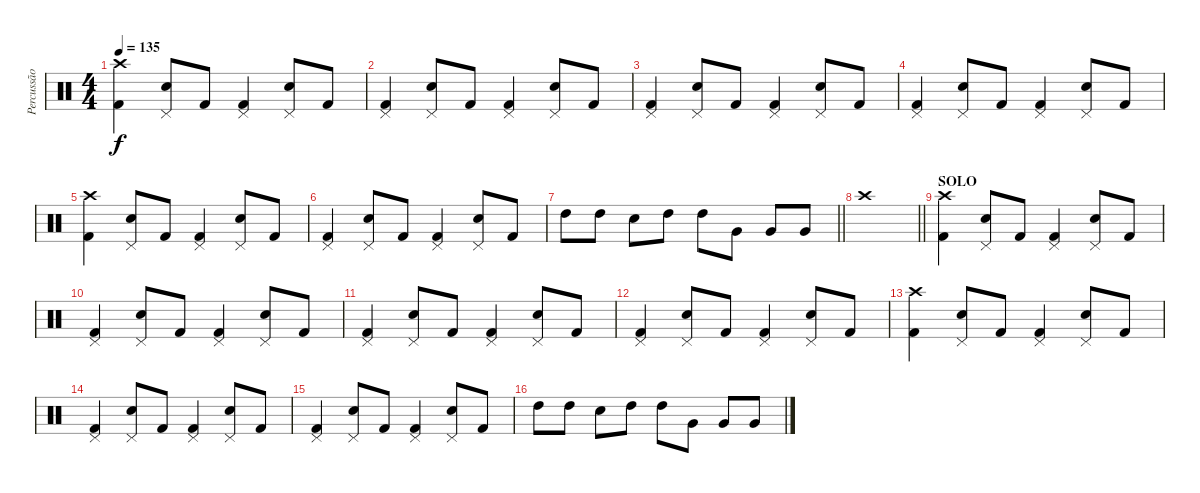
\track ("Percussão" "Percussão") {instrument percussion}
\staff {score}
\articulation defaults
\ts (4 4)
\tempo 135
\clef neutral
\ks c
("Crash high (hit)" "Kick (hit) 2").4{dy f} ("Pedal Hi-Hat (hit)" "Snare (hit) 2").8 "Kick (hit) 2".8 ("Pedal Hi-Hat (hit)" "Kick (hit) 2").4 ("Pedal Hi-Hat (hit)" "Snare (hit) 2").8 "Kick (hit) 2".8 |
("Pedal Hi-Hat (hit)" "Kick (hit) 2").4 ("Pedal Hi-Hat (hit)" "Snare (hit) 2").8 "Kick (hit) 2".8 ("Pedal Hi-Hat (hit)" "Kick (hit) 2").4 ("Pedal Hi-Hat (hit)" "Snare (hit) 2").8 "Kick (hit) 2".8 |
("Pedal Hi-Hat (hit)" "Kick (hit) 2").4 ("Pedal Hi-Hat (hit)" "Snare (hit) 2").8 "Kick (hit) 2".8 ("Pedal Hi-Hat (hit)" "Kick (hit) 2").4 ("Pedal Hi-Hat (hit)" "Snare (hit) 2").8 "Kick (hit) 2".8 |
("Pedal Hi-Hat (hit)" "Kick (hit) 2").4 ("Pedal Hi-Hat (hit)" "Snare (hit) 2").8 "Kick (hit) 2".8 ("Pedal Hi-Hat (hit)" "Kick (hit) 2").4 ("Pedal Hi-Hat (hit)" "Snare (hit) 2").8 "Kick (hit) 2".8 |
("Crash high (hit)" "Kick (hit) 2").4 ("Pedal Hi-Hat (hit)" "Snare (hit) 2").8 "Kick (hit) 2".8 ("Pedal Hi-Hat (hit)" "Kick (hit) 2").4 ("Pedal Hi-Hat (hit)" "Snare (hit) 2").8 "Kick (hit) 2".8 |
("Pedal Hi-Hat (hit)" "Kick (hit) 2").4 ("Pedal Hi-Hat (hit)" "Snare (hit) 2").8 "Kick (hit) 2".8 ("Pedal Hi-Hat (hit)" "Kick (hit) 2").4 ("Pedal Hi-Hat (hit)" "Snare (hit) 2").8 "Kick (hit) 2".8 |
\barLineRight lightlight "High Tom (hit)".8 "High Tom (hit)".8 "Snare (hit) 2".8 "High Tom (hit)".8 "High Tom (hit)".8 "Very Low Tom (hit)".8 "Very Low Tom (hit)".8 "Very Low Tom (hit)".8
|
\barLineRight lightlight "Crash high (hit)".1
|
\section ("" "SOLO")
("Crash high (hit)" "Kick (hit) 2").4 ("Pedal Hi-Hat (hit)" "Snare (hit) 2").8 "Kick (hit) 2".8 ("Pedal Hi-Hat (hit)" "Kick (hit) 2").4 ("Pedal Hi-Hat (hit)" "Snare (hit) 2").8 "Kick (hit) 2".8 |
("Pedal Hi-Hat (hit)" "Kick (hit) 2").4 ("Pedal Hi-Hat (hit)" "Snare (hit) 2").8 "Kick (hit) 2".8 ("Pedal Hi-Hat (hit)" "Kick (hit) 2").4 ("Pedal Hi-Hat (hit)" "Snare (hit) 2").8 "Kick (hit) 2".8 |
("Pedal Hi-Hat (hit)" "Kick (hit) 2").4 ("Pedal Hi-Hat (hit)" "Snare (hit) 2").8 "Kick (hit) 2".8 ("Pedal Hi-Hat (hit)" "Kick (hit) 2").4 ("Pedal Hi-Hat (hit)" "Snare (hit) 2").8 "Kick (hit) 2".8 |
("Pedal Hi-Hat (hit)" "Kick (hit) 2").4 ("Pedal Hi-Hat (hit)" "Snare (hit) 2").8 "Kick (hit) 2".8 ("Pedal Hi-Hat (hit)" "Kick (hit) 2").4 ("Pedal Hi-Hat (hit)" "Snare (hit) 2").8 "Kick (hit) 2".8 |
("Crash high (hit)" "Kick (hit) 2").4 ("Pedal Hi-Hat (hit)" "Snare (hit) 2").8 "Kick (hit) 2".8 ("Pedal Hi-Hat (hit)" "Kick (hit) 2").4 ("Pedal Hi-Hat (hit)" "Snare (hit) 2").8 "Kick (hit) 2".8 |
("Pedal Hi-Hat (hit)" "Kick (hit) 2").4 ("Pedal Hi-Hat (hit)" "Snare (hit) 2").8 "Kick (hit) 2".8 ("Pedal Hi-Hat (hit)" "Kick (hit) 2").4 ("Pedal Hi-Hat (hit)" "Snare (hit) 2").8 "Kick (hit) 2".8 |
("Pedal Hi-Hat (hit)" "Kick (hit) 2").4 ("Pedal Hi-Hat (hit)" "Snare (hit) 2").8 "Kick (hit) 2".8 ("Pedal Hi-Hat (hit)" "Kick (hit) 2").4 ("Pedal Hi-Hat (hit)" "Snare (hit) 2").8 "Kick (hit) 2".8 |
"High Tom (hit)".8 "High Tom (hit)".8 "Snare (hit) 2".8 "High Tom (hit)".8 "High Tom (hit)".8 "Very Low Tom (hit)".8 "Very Low Tom (hit)".8 "Very Low Tom (hit)".8
